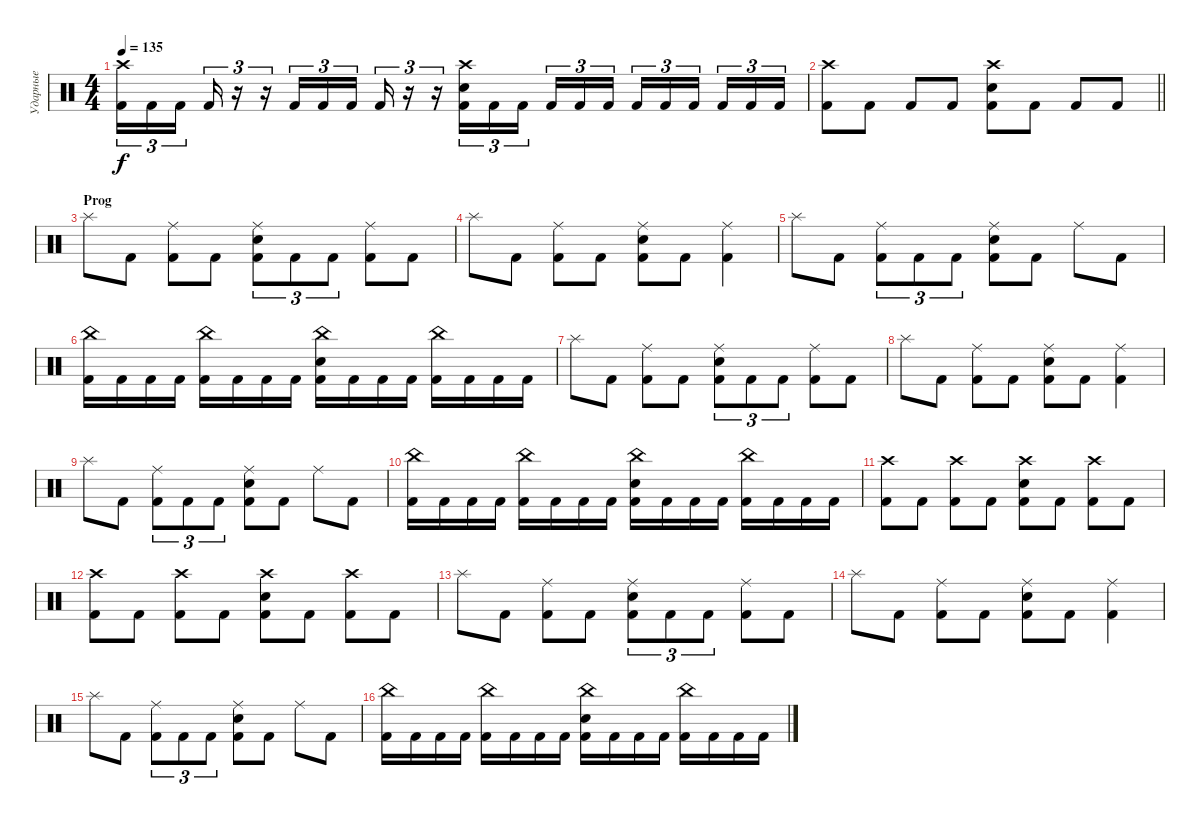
\track ("Ударные" "Ударные") {instrument percussion}
\staff {score}
\articulation defaults
\ts (4 4)
\tempo 135
\clef neutral
\ks c
("Crash high (hit)" "Kick (hit) 2").16{tu (3 2) dy f} "Kick (hit) 2".16{tu (3 2)} "Kick (hit) 2".16{tu (3 2) beam splitsecondary} "Kick (hit) 2".16{tu (3 2)} r.16{tu (3 2)} r.16{tu (3 2)} "Kick (hit) 2".16{tu (3 2)} "Kick (hit) 2".16{tu (3 2)} "Kick (hit) 2".16{tu (3 2) beam splitsecondary} "Kick (hit) 2".16{tu (3 2)} r.16{tu (3 2)} r.16{tu (3 2)} ("Crash high (hit)" "Electric Snare (hit)" "Kick (hit) 2").16{tu (3 2)} "Kick (hit) 2".16{tu (3 2)} "Kick (hit) 2".16{tu (3 2) beam splitsecondary} "Kick (hit) 2".16{tu (3 2)} "Kick (hit) 2".16{tu (3 2)} "Kick (hit) 2".16{tu (3 2)} "Kick (hit) 2".16{tu (3 2)} "Kick (hit) 2".16{tu (3 2)} "Kick (hit) 2".16{tu (3 2) beam splitsecondary} "Kick (hit) 2".16{tu (3 2)} "Kick (hit) 2".16{tu (3 2)} "Kick (hit) 2".16{tu (3 2)} |
\barLineRight lightlight
("Crash high (hit)" "Kick (hit) 2").8 "Kick (hit) 2".8 "Kick (hit) 2".8 "Kick (hit) 2".8 ("Crash high (hit)" "Electric Snare (hit)" "Kick (hit) 2").8 "Kick (hit) 2".8 "Kick (hit) 2".8 "Kick (hit) 2".8 |
\section ("" "Prog")
"Splash (hit)".8 "Kick (hit) 2".8 ("Ride (middle)" "Kick (hit) 2").8 "Kick (hit) 2".8 ("Ride (middle)" "Electric Snare (hit)" "Kick (hit) 2").8{tu (3 2)} "Kick (hit) 2".8{tu (3 2)} "Kick (hit) 2".8{tu (3 2)} ("Ride (middle)" "Kick (hit) 2").8 "Kick (hit) 2".8 |
"Splash (hit)".8 "Kick (hit) 2".8 ("Ride (middle)" "Kick (hit) 2").8 "Kick (hit) 2".8 ("Ride (middle)" "Electric Snare (hit)" "Kick (hit) 2").8 "Kick (hit) 2".8 ("Ride (middle)" "Kick (hit) 2").4 |
"Splash (hit)".8 "Kick (hit) 2".8 ("Ride (middle)" "Kick (hit) 2").8{tu (3 2)} "Kick (hit) 2".8{tu (3 2)} "Kick (hit) 2".8{tu (3 2)} ("Ride (middle)" "Electric Snare (hit)" "Kick (hit) 2").8 "Kick (hit) 2".8 "Ride (middle)".8 "Kick (hit) 2".8 |
("China (hit)" "Kick (hit) 2").16 "Kick (hit) 2".16 "Kick (hit) 2".16 "Kick (hit) 2".16 ("China (hit)" "Kick (hit) 2").16 "Kick (hit) 2".16 "Kick (hit) 2".16 "Kick (hit) 2".16 ("China (hit)" "Electric Snare (hit)" "Kick (hit) 2").16 "Kick (hit) 2".16 "Kick (hit) 2".16 "Kick (hit) 2".16 ("China (hit)" "Kick (hit) 2").16 "Kick (hit) 2".16 "Kick (hit) 2".16 "Kick (hit) 2".16 |
"Splash (hit)".8 "Kick (hit) 2".8 ("Ride (middle)" "Kick (hit) 2").8 "Kick (hit) 2".8 ("Ride (middle)" "Electric Snare (hit)" "Kick (hit) 2").8{tu (3 2)} "Kick (hit) 2".8{tu (3 2)} "Kick (hit) 2".8{tu (3 2)} ("Ride (middle)" "Kick (hit) 2").8 "Kick (hit) 2".8 |
"Splash (hit)".8 "Kick (hit) 2".8 ("Ride (middle)" "Kick (hit) 2").8 "Kick (hit) 2".8 ("Ride (middle)" "Electric Snare (hit)" "Kick (hit) 2").8 "Kick (hit) 2".8 ("Ride (middle)" "Kick (hit) 2").4 |
"Splash (hit)".8 "Kick (hit) 2".8 ("Ride (middle)" "Kick (hit) 2").8{tu (3 2)} "Kick (hit) 2".8{tu (3 2)} "Kick (hit) 2".8{tu (3 2)} ("Ride (middle)" "Electric Snare (hit)" "Kick (hit) 2").8 "Kick (hit) 2".8 "Ride (middle)".8 "Kick (hit) 2".8 |
("China (hit)" "Kick (hit) 2").16 "Kick (hit) 2".16 "Kick (hit) 2".16 "Kick (hit) 2".16 ("China (hit)" "Kick (hit) 2").16 "Kick (hit) 2".16 "Kick (hit) 2".16 "Kick (hit) 2".16 ("China (hit)" "Electric Snare (hit)" "Kick (hit) 2").16 "Kick (hit) 2".16 "Kick (hit) 2".16 "Kick (hit) 2".16 ("China (hit)" "Kick (hit) 2").16 "Kick (hit) 2".16 "Kick (hit) 2".16 "Kick (hit) 2".16 |
("Crash high (hit)" "Kick (hit) 2").8 "Kick (hit) 2".8 ("Crash high (hit)" "Kick (hit) 2").8 "Kick (hit) 2".8 ("Crash high (hit)" "Electric Snare (hit)" "Kick (hit) 2").8 "Kick (hit) 2".8 ("Crash high (hit)" "Kick (hit) 2").8 "Kick (hit) 2".8 |
("Crash high (hit)" "Kick (hit) 2").8 "Kick (hit) 2".8 ("Crash high (hit)" "Kick (hit) 2").8 "Kick (hit) 2".8 ("Crash high (hit)" "Electric Snare (hit)" "Kick (hit) 2").8 "Kick (hit) 2".8 ("Crash high (hit)" "Kick (hit) 2").8 "Kick (hit) 2".8 |
"Splash (hit)".8 "Kick (hit) 2".8 ("Ride (middle)" "Kick (hit) 2").8 "Kick (hit) 2".8 ("Ride (middle)" "Electric Snare (hit)" "Kick (hit) 2").8{tu (3 2)} "Kick (hit) 2".8{tu (3 2)} "Kick (hit) 2".8{tu (3 2)} ("Ride (middle)" "Kick (hit) 2").8 "Kick (hit) 2".8 |
"Splash (hit)".8 "Kick (hit) 2".8 ("Ride (middle)" "Kick (hit) 2").8 "Kick (hit) 2".8 ("Ride (middle)" "Electric Snare (hit)" "Kick (hit) 2").8 "Kick (hit) 2".8 ("Ride (middle)" "Kick (hit) 2").4 |
"Splash (hit)".8 "Kick (hit) 2".8 ("Ride (middle)" "Kick (hit) 2").8{tu (3 2)} "Kick (hit) 2".8{tu (3 2)} "Kick (hit) 2".8{tu (3 2)} ("Ride (middle)" "Electric Snare (hit)" "Kick (hit) 2").8 "Kick (hit) 2".8 "Ride (middle)".8 "Kick (hit) 2".8 |
("China (hit)" "Kick (hit) 2").16 "Kick (hit) 2".16 "Kick (hit) 2".16 "Kick (hit) 2".16 ("China (hit)" "Kick (hit) 2").16 "Kick (hit) 2".16 "Kick (hit) 2".16 "Kick (hit) 2".16 ("China (hit)" "Electric Snare (hit)" "Kick (hit) 2").16 "Kick (hit) 2".16 "Kick (hit) 2".16 "Kick (hit) 2".16 ("China (hit)" "Kick (hit) 2").16 "Kick (hit) 2".16 "Kick (hit) 2".16 "Kick (hit) 2".16
